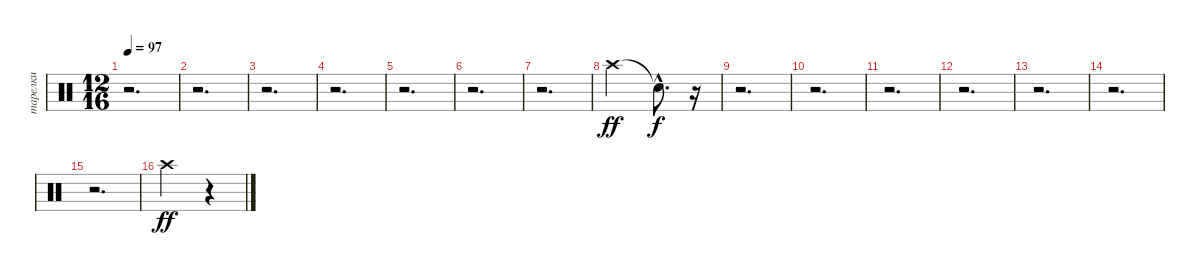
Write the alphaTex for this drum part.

\track ("тарелки" "тарелки") {instrument percussion}
\staff {score}
\articulation defaults
\ts (12 16)
\tempo 97
\clef neutral
\ks c
r.2{d dy ff} |
r.2{d} |
r.2{d} |
r.2{d} |
r.2{d} |
r.2{d} |
r.2{d} |
"Crash high (hit)".2 "Snare (hit)"{hac t}.8{d dy f} r.16 |
r.2{d} |
r.2{d} |
r.2{d} |
r.2{d} |
r.2{d} |
r.2{d} |
r.2{d} |
"Crash high (hit)".2{dy ff} r.4
